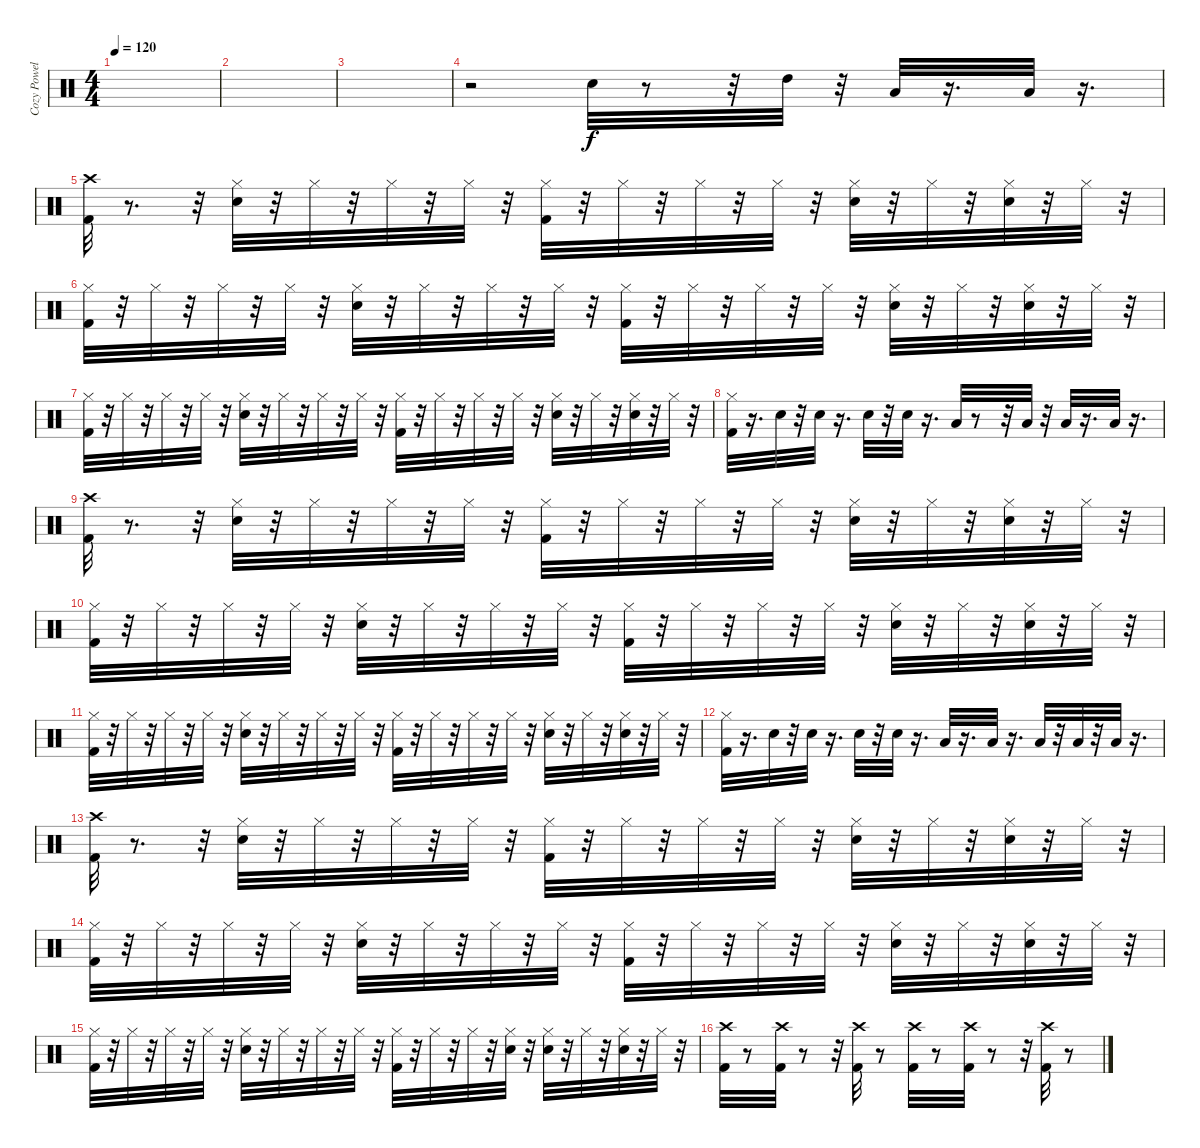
\track ("Cozy Powel" "Cozy Powel") {instrument percussion}
\staff {score}
\articulation defaults
\ts (4 4)
\tempo 120
\clef neutral
\ks c
|
|
|
r.2 "Snare (hit) 2".32 r.8 r.32 "High Tom (hit)".32 r.32 "Low Tom (hit)".32 r.16{d} "Low Tom (hit)".32 r.16{d} |
("Kick (hit) 2" "Crash high (hit)").32 r.8{d} r.32 ("Snare (hit) 2" "Hi-Hat (closed)").32 r.32 "Hi-Hat (closed)".32 r.32 "Hi-Hat (closed)".32 r.32 "Hi-Hat (closed)".32 r.32 ("Kick (hit) 2" "Hi-Hat (closed)").32 r.32 "Hi-Hat (closed)".32 r.32 "Hi-Hat (closed)".32 r.32 "Hi-Hat (closed)".32 r.32 ("Snare (hit) 2" "Hi-Hat (closed)").32 r.32 "Hi-Hat (closed)".32 r.32 ("Snare (hit) 2" "Hi-Hat (closed)").32 r.32 "Hi-Hat (closed)".32 r.32 |
("Kick (hit) 2" "Hi-Hat (closed)").32 r.32 "Hi-Hat (closed)".32 r.32 "Hi-Hat (closed)".32 r.32 "Hi-Hat (closed)".32 r.32 ("Snare (hit) 2" "Hi-Hat (closed)").32 r.32 "Hi-Hat (closed)".32 r.32 "Hi-Hat (closed)".32 r.32 "Hi-Hat (closed)".32 r.32 ("Kick (hit) 2" "Hi-Hat (closed)").32 r.32 "Hi-Hat (closed)".32 r.32 "Hi-Hat (closed)".32 r.32 "Hi-Hat (closed)".32 r.32 ("Snare (hit) 2" "Hi-Hat (closed)").32 r.32 "Hi-Hat (closed)".32 r.32 ("Snare (hit) 2" "Hi-Hat (closed)").32 r.32 "Hi-Hat (closed)".32 r.32 |
("Kick (hit) 2" "Hi-Hat (closed)").32 r.32 "Hi-Hat (closed)".32 r.32 "Hi-Hat (closed)".32 r.32 "Hi-Hat (closed)".32 r.32 ("Snare (hit) 2" "Hi-Hat (closed)").32 r.32 "Hi-Hat (closed)".32 r.32 "Hi-Hat (closed)".32 r.32 "Hi-Hat (closed)".32 r.32 ("Kick (hit) 2" "Hi-Hat (closed)").32 r.32 "Hi-Hat (closed)".32 r.32 "Hi-Hat (closed)".32 r.32 "Hi-Hat (closed)".32 r.32 ("Snare (hit) 2" "Hi-Hat (closed)").32 r.32 "Hi-Hat (closed)".32 r.32 ("Snare (hit) 2" "Hi-Hat (closed)").32 r.32 "Hi-Hat (closed)".32 r.32 |
("Kick (hit) 2" "Hi-Hat (closed)").32 r.16{d} "Snare (hit) 2".32 r.32 "Snare (hit) 2".32 r.16{d} "Snare (hit) 2".32 r.32 "Snare (hit) 2".32 r.16{d} "Low Tom (hit)".32 r.8 r.32 "Low Tom (hit)".32 r.32 "Low Tom (hit)".32 r.16{d} "Low Tom (hit)".32 r.16{d} |
("Kick (hit) 2" "Crash high (hit)").32 r.8{d} r.32 ("Snare (hit) 2" "Hi-Hat (closed)").32 r.32 "Hi-Hat (closed)".32 r.32 "Hi-Hat (closed)".32 r.32 "Hi-Hat (closed)".32 r.32 ("Kick (hit) 2" "Hi-Hat (closed)").32 r.32 "Hi-Hat (closed)".32 r.32 "Hi-Hat (closed)".32 r.32 "Hi-Hat (closed)".32 r.32 ("Snare (hit) 2" "Hi-Hat (closed)").32 r.32 "Hi-Hat (closed)".32 r.32 ("Snare (hit) 2" "Hi-Hat (closed)").32 r.32 "Hi-Hat (closed)".32 r.32 |
("Kick (hit) 2" "Hi-Hat (closed)").32 r.32 "Hi-Hat (closed)".32 r.32 "Hi-Hat (closed)".32 r.32 "Hi-Hat (closed)".32 r.32 ("Snare (hit) 2" "Hi-Hat (closed)").32 r.32 "Hi-Hat (closed)".32 r.32 "Hi-Hat (closed)".32 r.32 "Hi-Hat (closed)".32 r.32 ("Kick (hit) 2" "Hi-Hat (closed)").32 r.32 "Hi-Hat (closed)".32 r.32 "Hi-Hat (closed)".32 r.32 "Hi-Hat (closed)".32 r.32 ("Snare (hit) 2" "Hi-Hat (closed)").32 r.32 "Hi-Hat (closed)".32 r.32 ("Snare (hit) 2" "Hi-Hat (closed)").32 r.32 "Hi-Hat (closed)".32 r.32 |
("Kick (hit) 2" "Hi-Hat (closed)").32 r.32 "Hi-Hat (closed)".32 r.32 "Hi-Hat (closed)".32 r.32 "Hi-Hat (closed)".32 r.32 ("Snare (hit) 2" "Hi-Hat (closed)").32 r.32 "Hi-Hat (closed)".32 r.32 "Hi-Hat (closed)".32 r.32 "Hi-Hat (closed)".32 r.32 ("Kick (hit) 2" "Hi-Hat (closed)").32 r.32 "Hi-Hat (closed)".32 r.32 "Hi-Hat (closed)".32 r.32 "Hi-Hat (closed)".32 r.32 ("Snare (hit) 2" "Hi-Hat (closed)").32 r.32 "Hi-Hat (closed)".32 r.32 ("Snare (hit) 2" "Hi-Hat (closed)").32 r.32 "Hi-Hat (closed)".32 r.32 |
("Kick (hit) 2" "Hi-Hat (closed)").32 r.16{d} "Snare (hit) 2".32 r.32 "Snare (hit) 2".32 r.16{d} "Snare (hit) 2".32 r.32 "Snare (hit) 2".32 r.16{d} "Low Tom (hit)".32 r.16{d} "Low Tom (hit)".32 r.16{d} "Low Tom (hit)".32 r.32 "Low Tom (hit)".32 r.32 "Low Tom (hit)".32 r.16{d} |
("Kick (hit) 2" "Crash high (hit)").32 r.8{d} r.32 ("Snare (hit) 2" "Hi-Hat (closed)").32 r.32 "Hi-Hat (closed)".32 r.32 "Hi-Hat (closed)".32 r.32 "Hi-Hat (closed)".32 r.32 ("Kick (hit) 2" "Hi-Hat (closed)").32 r.32 "Hi-Hat (closed)".32 r.32 "Hi-Hat (closed)".32 r.32 "Hi-Hat (closed)".32 r.32 ("Snare (hit) 2" "Hi-Hat (closed)").32 r.32 "Hi-Hat (closed)".32 r.32 ("Snare (hit) 2" "Hi-Hat (closed)").32 r.32 "Hi-Hat (closed)".32 r.32 |
("Kick (hit) 2" "Hi-Hat (closed)").32 r.32 "Hi-Hat (closed)".32 r.32 "Hi-Hat (closed)".32 r.32 "Hi-Hat (closed)".32 r.32 ("Snare (hit) 2" "Hi-Hat (closed)").32 r.32 "Hi-Hat (closed)".32 r.32 "Hi-Hat (closed)".32 r.32 "Hi-Hat (closed)".32 r.32 ("Kick (hit) 2" "Hi-Hat (closed)").32 r.32 "Hi-Hat (closed)".32 r.32 "Hi-Hat (closed)".32 r.32 "Hi-Hat (closed)".32 r.32 ("Snare (hit) 2" "Hi-Hat (closed)").32 r.32 "Hi-Hat (closed)".32 r.32 ("Snare (hit) 2" "Hi-Hat (closed)").32 r.32 "Hi-Hat (closed)".32 r.32 |
("Kick (hit) 2" "Hi-Hat (closed)").32 r.32 "Hi-Hat (closed)".32 r.32 "Hi-Hat (closed)".32 r.32 "Hi-Hat (closed)".32 r.32 ("Snare (hit) 2" "Hi-Hat (closed)").32 r.32 "Hi-Hat (closed)".32 r.32 "Hi-Hat (closed)".32 r.32 "Hi-Hat (closed)".32 r.32 ("Kick (hit) 2" "Hi-Hat (closed)").32 r.32 "Hi-Hat (closed)".32 r.32 "Hi-Hat (closed)".32 r.32 ("Hi-Hat (closed)" "Snare (hit) 2").32 r.32 ("Snare (hit) 2" "Hi-Hat (closed)").32 r.32 "Hi-Hat (closed)".32 r.32 ("Snare (hit) 2" "Hi-Hat (closed)").32 r.32 "Hi-Hat (closed)".32 r.32 |
("Kick (hit) 2" "Crash high (hit)").32 r.8 ("Kick (hit) 2" "Crash high (hit)").32 r.8 r.32 ("Kick (hit) 2" "Crash high (hit)").32 r.8 ("Kick (hit) 2" "Crash high (hit)").32 r.8 ("Kick (hit) 2" "Crash high (hit)").32 r.8 r.32 ("Kick (hit) 2" "Crash high (hit)").32 r.8
